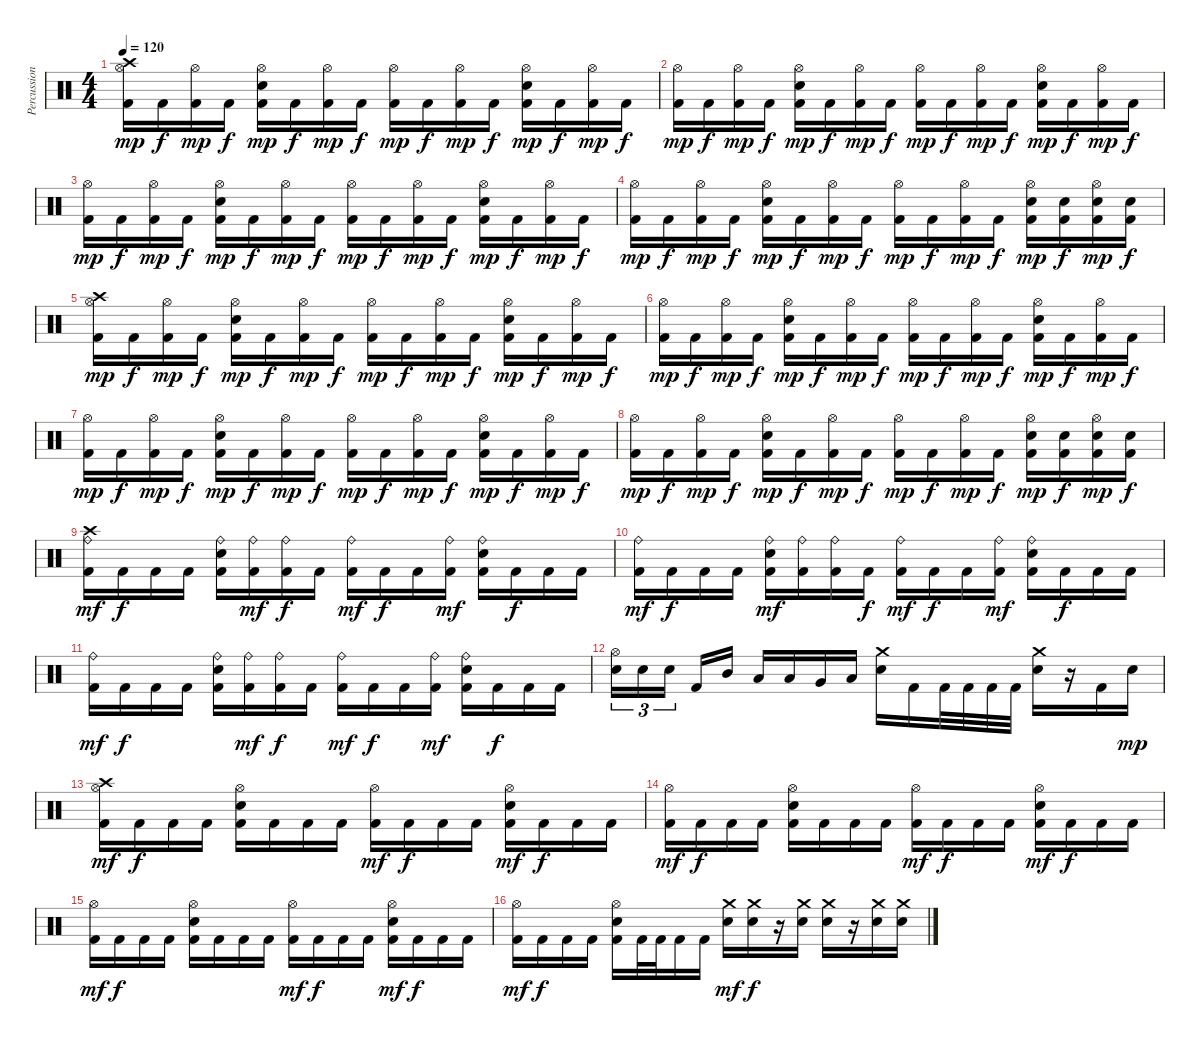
\track ("Percussion" "Percussion") {instrument percussion}
\staff {score}
\articulation defaults
\ts (4 4)
\tempo 120
\clef neutral
\ks c
("Hi-Hat (open)" "Crash high (hit)" "Kick (hit) 2").16{dy mp} "Kick (hit) 2".16{dy f} ("Hi-Hat (open)" "Kick (hit) 2").16{dy mp} "Kick (hit) 2".16{dy f} ("Hi-Hat (open)" "Electric Snare (hit)" "Kick (hit) 2").16{dy mp} "Kick (hit) 2".16{dy f} ("Hi-Hat (open)" "Kick (hit) 2").16{dy mp} "Kick (hit) 2".16{dy f} ("Hi-Hat (open)" "Kick (hit) 2").16{dy mp} "Kick (hit) 2".16{dy f} ("Hi-Hat (open)" "Kick (hit) 2").16{dy mp} "Kick (hit) 2".16{dy f} ("Hi-Hat (open)" "Electric Snare (hit)" "Kick (hit) 2").16{dy mp} "Kick (hit) 2".16{dy f} ("Hi-Hat (open)" "Kick (hit) 2").16{dy mp} "Kick (hit) 2".16{dy f} |
("Hi-Hat (open)" "Kick (hit) 2").16{dy mp} "Kick (hit) 2".16{dy f} ("Hi-Hat (open)" "Kick (hit) 2").16{dy mp} "Kick (hit) 2".16{dy f} ("Hi-Hat (open)" "Electric Snare (hit)" "Kick (hit) 2").16{dy mp} "Kick (hit) 2".16{dy f} ("Hi-Hat (open)" "Kick (hit) 2").16{dy mp} "Kick (hit) 2".16{dy f} ("Hi-Hat (open)" "Kick (hit) 2").16{dy mp} "Kick (hit) 2".16{dy f} ("Hi-Hat (open)" "Kick (hit) 2").16{dy mp} "Kick (hit) 2".16{dy f} ("Hi-Hat (open)" "Electric Snare (hit)" "Kick (hit) 2").16{dy mp} "Kick (hit) 2".16{dy f} ("Hi-Hat (open)" "Kick (hit) 2").16{dy mp} "Kick (hit) 2".16{dy f} |
("Hi-Hat (open)" "Kick (hit) 2").16{dy mp} "Kick (hit) 2".16{dy f} ("Hi-Hat (open)" "Kick (hit) 2").16{dy mp} "Kick (hit) 2".16{dy f} ("Hi-Hat (open)" "Electric Snare (hit)" "Kick (hit) 2").16{dy mp} "Kick (hit) 2".16{dy f} ("Hi-Hat (open)" "Kick (hit) 2").16{dy mp} "Kick (hit) 2".16{dy f} ("Hi-Hat (open)" "Kick (hit) 2").16{dy mp} "Kick (hit) 2".16{dy f} ("Hi-Hat (open)" "Kick (hit) 2").16{dy mp} "Kick (hit) 2".16{dy f} ("Hi-Hat (open)" "Electric Snare (hit)" "Kick (hit) 2").16{dy mp} "Kick (hit) 2".16{dy f} ("Hi-Hat (open)" "Kick (hit) 2").16{dy mp} "Kick (hit) 2".16{dy f} |
("Hi-Hat (open)" "Kick (hit) 2").16{dy mp} "Kick (hit) 2".16{dy f} ("Hi-Hat (open)" "Kick (hit) 2").16{dy mp} "Kick (hit) 2".16{dy f} ("Hi-Hat (open)" "Electric Snare (hit)" "Kick (hit) 2").16{dy mp} "Kick (hit) 2".16{dy f} ("Hi-Hat (open)" "Kick (hit) 2").16{dy mp} "Kick (hit) 2".16{dy f} ("Hi-Hat (open)" "Kick (hit) 2").16{dy mp} "Kick (hit) 2".16{dy f} ("Hi-Hat (open)" "Kick (hit) 2").16{dy mp} "Kick (hit) 2".16{dy f} ("Hi-Hat (open)" "Electric Snare (hit)" "Kick (hit) 2").16{dy mp} ("Electric Snare (hit)" "Kick (hit) 2").16{dy f} ("Hi-Hat (open)" "Electric Snare (hit)" "Kick (hit) 2").16{dy mp} ("Electric Snare (hit)" "Kick (hit) 2").16{dy f} |
("Hi-Hat (open)" "Crash high (hit)" "Kick (hit) 2").16{dy mp} "Kick (hit) 2".16{dy f} ("Hi-Hat (open)" "Kick (hit) 2").16{dy mp} "Kick (hit) 2".16{dy f} ("Hi-Hat (open)" "Electric Snare (hit)" "Kick (hit) 2").16{dy mp} "Kick (hit) 2".16{dy f} ("Hi-Hat (open)" "Kick (hit) 2").16{dy mp} "Kick (hit) 2".16{dy f} ("Hi-Hat (open)" "Kick (hit) 2").16{dy mp} "Kick (hit) 2".16{dy f} ("Hi-Hat (open)" "Kick (hit) 2").16{dy mp} "Kick (hit) 2".16{dy f} ("Hi-Hat (open)" "Electric Snare (hit)" "Kick (hit) 2").16{dy mp} "Kick (hit) 2".16{dy f} ("Hi-Hat (open)" "Kick (hit) 2").16{dy mp} "Kick (hit) 2".16{dy f} |
("Hi-Hat (open)" "Kick (hit) 2").16{dy mp} "Kick (hit) 2".16{dy f} ("Hi-Hat (open)" "Kick (hit) 2").16{dy mp} "Kick (hit) 2".16{dy f} ("Hi-Hat (open)" "Electric Snare (hit)" "Kick (hit) 2").16{dy mp} "Kick (hit) 2".16{dy f} ("Hi-Hat (open)" "Kick (hit) 2").16{dy mp} "Kick (hit) 2".16{dy f} ("Hi-Hat (open)" "Kick (hit) 2").16{dy mp} "Kick (hit) 2".16{dy f} ("Hi-Hat (open)" "Kick (hit) 2").16{dy mp} "Kick (hit) 2".16{dy f} ("Hi-Hat (open)" "Electric Snare (hit)" "Kick (hit) 2").16{dy mp} "Kick (hit) 2".16{dy f} ("Hi-Hat (open)" "Kick (hit) 2").16{dy mp} "Kick (hit) 2".16{dy f} |
("Hi-Hat (open)" "Kick (hit) 2").16{dy mp} "Kick (hit) 2".16{dy f} ("Hi-Hat (open)" "Kick (hit) 2").16{dy mp} "Kick (hit) 2".16{dy f} ("Hi-Hat (open)" "Electric Snare (hit)" "Kick (hit) 2").16{dy mp} "Kick (hit) 2".16{dy f} ("Hi-Hat (open)" "Kick (hit) 2").16{dy mp} "Kick (hit) 2".16{dy f} ("Hi-Hat (open)" "Kick (hit) 2").16{dy mp} "Kick (hit) 2".16{dy f} ("Hi-Hat (open)" "Kick (hit) 2").16{dy mp} "Kick (hit) 2".16{dy f} ("Hi-Hat (open)" "Electric Snare (hit)" "Kick (hit) 2").16{dy mp} "Kick (hit) 2".16{dy f} ("Hi-Hat (open)" "Kick (hit) 2").16{dy mp} "Kick (hit) 2".16{dy f} |
("Hi-Hat (open)" "Kick (hit) 2").16{dy mp} "Kick (hit) 2".16{dy f} ("Hi-Hat (open)" "Kick (hit) 2").16{dy mp} "Kick (hit) 2".16{dy f} ("Hi-Hat (open)" "Electric Snare (hit)" "Kick (hit) 2").16{dy mp} "Kick (hit) 2".16{dy f} ("Hi-Hat (open)" "Kick (hit) 2").16{dy mp} "Kick (hit) 2".16{dy f} ("Hi-Hat (open)" "Kick (hit) 2").16{dy mp} "Kick (hit) 2".16{dy f} ("Hi-Hat (open)" "Kick (hit) 2").16{dy mp} "Kick (hit) 2".16{dy f} ("Hi-Hat (open)" "Electric Snare (hit)" "Kick (hit) 2").16{dy mp} ("Electric Snare (hit)" "Kick (hit) 2").16{dy f} ("Hi-Hat (open)" "Electric Snare (hit)" "Kick (hit) 2").16{dy mp} ("Electric Snare (hit)" "Kick (hit) 2").16{dy f} |
("Ride (bell)" "Crash high (hit)" "Kick (hit) 2").16{dy mf} "Kick (hit) 2".16{dy f} "Kick (hit) 2".16 "Kick (hit) 2".16 ("Ride (bell)" "Electric Snare (hit)" "Kick (hit) 2").16 ("Ride (bell)" "Kick (hit) 2").16{dy mf} ("Ride (bell)" "Kick (hit) 2").16{dy f} "Kick (hit) 2".16 ("Ride (bell)" "Kick (hit) 2").16{dy mf} "Kick (hit) 2".16{dy f} "Kick (hit) 2".16 ("Ride (bell)" "Kick (hit) 2").16{dy mf} ("Ride (bell)" "Electric Snare (hit)" "Kick (hit) 2").16 "Kick (hit) 2".16{dy f} "Kick (hit) 2".16 "Kick (hit) 2".16 |
("Ride (bell)" "Kick (hit) 2").16{dy mf} "Kick (hit) 2".16{dy f} "Kick (hit) 2".16 "Kick (hit) 2".16 ("Ride (bell)" "Electric Snare (hit)" "Kick (hit) 2").16{dy mf} ("Ride (bell)" "Kick (hit) 2").16 ("Ride (bell)" "Kick (hit) 2").16 "Kick (hit) 2".16{dy f} ("Ride (bell)" "Kick (hit) 2").16{dy mf} "Kick (hit) 2".16{dy f} "Kick (hit) 2".16 ("Ride (bell)" "Kick (hit) 2").16{dy mf} ("Ride (bell)" "Electric Snare (hit)" "Kick (hit) 2").16 "Kick (hit) 2".16{dy f} "Kick (hit) 2".16 "Kick (hit) 2".16 |
("Ride (bell)" "Kick (hit) 2").16{dy mf} "Kick (hit) 2".16{dy f} "Kick (hit) 2".16 "Kick (hit) 2".16 ("Ride (bell)" "Electric Snare (hit)" "Kick (hit) 2").16 ("Ride (bell)" "Kick (hit) 2").16{dy mf} ("Ride (bell)" "Kick (hit) 2").16{dy f} "Kick (hit) 2".16 ("Ride (bell)" "Kick (hit) 2").16{dy mf} "Kick (hit) 2".16{dy f} "Kick (hit) 2".16 ("Ride (bell)" "Kick (hit) 2").16{dy mf} ("Ride (bell)" "Electric Snare (hit)" "Kick (hit) 2").16 "Kick (hit) 2".16{dy f} "Kick (hit) 2".16 "Kick (hit) 2".16 |
("Hi-Hat (open)" "Electric Snare (hit)").16{tu (3 2)} "Electric Snare (hit)".16{tu (3 2)} "Electric Snare (hit)".16{tu (3 2)} "Kick (hit) 2".16 "Mid Tom (hit)".16 "Low Tom (hit)".16 "Low Tom (hit)".16 "Very Low Tom (hit)".16 "Low Floor Tom (hit)".16 ("Crash medium (hit)" "Electric Snare (hit)").16 "Kick (hit) 2".16 "Kick (hit) 2".32 "Kick (hit) 2".32 "Kick (hit) 2".32 "Kick (hit) 2".32 ("Crash medium (hit)" "Electric Snare (hit)").16 r.16 "Kick (hit) 2".16 "Electric Snare (hit)".16{dy mp} |
("Hi-Hat (open)" "Crash high (hit)" "Kick (hit) 2").16{dy mf} "Kick (hit) 2".16{dy f} "Kick (hit) 2".16 "Kick (hit) 2".16 ("Hi-Hat (open)" "Electric Snare (hit)" "Kick (hit) 2").16 "Kick (hit) 2".16 "Kick (hit) 2".16 "Kick (hit) 2".16 ("Hi-Hat (open)" "Kick (hit) 2").16{dy mf} "Kick (hit) 2".16{dy f} "Kick (hit) 2".16 "Kick (hit) 2".16 ("Hi-Hat (open)" "Electric Snare (hit)" "Kick (hit) 2").16{dy mf} "Kick (hit) 2".16{dy f} "Kick (hit) 2".16 "Kick (hit) 2".16 |
("Hi-Hat (open)" "Kick (hit) 2").16{dy mf} "Kick (hit) 2".16{dy f} "Kick (hit) 2".16 "Kick (hit) 2".16 ("Hi-Hat (open)" "Electric Snare (hit)" "Kick (hit) 2").16 "Kick (hit) 2".16 "Kick (hit) 2".16 "Kick (hit) 2".16 ("Hi-Hat (open)" "Kick (hit) 2").16{dy mf} "Kick (hit) 2".16{dy f} "Kick (hit) 2".16 "Kick (hit) 2".16 ("Hi-Hat (open)" "Electric Snare (hit)" "Kick (hit) 2").16{dy mf} "Kick (hit) 2".16{dy f} "Kick (hit) 2".16 "Kick (hit) 2".16 |
("Hi-Hat (open)" "Kick (hit) 2").16{dy mf} "Kick (hit) 2".16{dy f} "Kick (hit) 2".16 "Kick (hit) 2".16 ("Hi-Hat (open)" "Electric Snare (hit)" "Kick (hit) 2").16 "Kick (hit) 2".16 "Kick (hit) 2".16 "Kick (hit) 2".16 ("Hi-Hat (open)" "Kick (hit) 2").16{dy mf} "Kick (hit) 2".16{dy f} "Kick (hit) 2".16 "Kick (hit) 2".16 ("Hi-Hat (open)" "Electric Snare (hit)" "Kick (hit) 2").16{dy mf} "Kick (hit) 2".16{dy f} "Kick (hit) 2".16 "Kick (hit) 2".16 |
("Hi-Hat (open)" "Kick (hit) 2").16{dy mf} "Kick (hit) 2".16{dy f} "Kick (hit) 2".16 "Kick (hit) 2".16 ("Hi-Hat (open)" "Electric Snare (hit)" "Kick (hit) 2").16 "Kick (hit) 2".32 "Kick (hit) 2".32 "Kick (hit) 2".16 "Kick (hit) 2".16 ("Crash medium (hit)" "Electric Snare (hit)").16{dy mf} ("Crash medium (hit)" "Electric Snare (hit)").16{dy f} r.16 ("Crash medium (hit)" "Electric Snare (hit)").16 ("Crash medium (hit)" "Electric Snare (hit)").16 r.16 ("Crash medium (hit)" "Electric Snare (hit)").16 ("Crash medium (hit)" "Electric Snare (hit)").16
